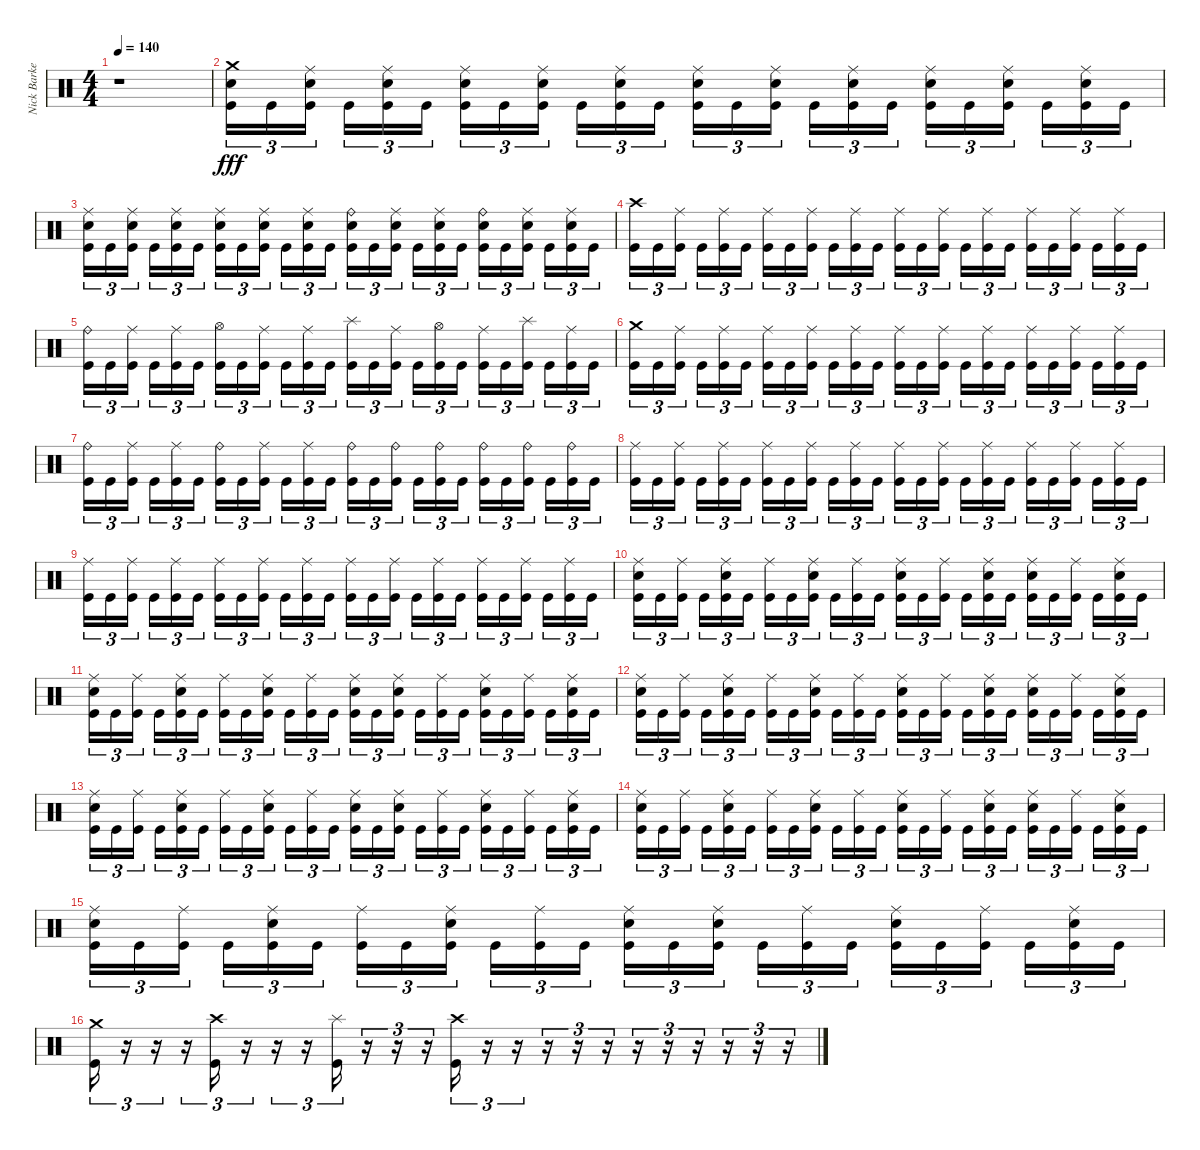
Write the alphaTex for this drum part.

\track ("Nick Barker" "Nick Barke") {instrument percussion}
\staff {score}
\articulation defaults
\ts (4 4)
\tempo 140
\clef neutral
\ks c
r.1{dy fff} |
("Crash medium (hit)" "Electric Snare (hit)" "Kick (hit)").16{tu (3 2)} "Kick (hit)".16{tu (3 2)} ("Ride (middle)" "Electric Snare (hit)" "Kick (hit)").16{tu (3 2)} "Kick (hit)".16{tu (3 2)} ("Ride (middle)" "Electric Snare (hit)" "Kick (hit)").16{tu (3 2)} "Kick (hit)".16{tu (3 2)} ("Ride (middle)" "Electric Snare (hit)" "Kick (hit)").16{tu (3 2)} "Kick (hit)".16{tu (3 2)} ("Ride (middle)" "Electric Snare (hit)" "Kick (hit)").16{tu (3 2)} "Kick (hit)".16{tu (3 2)} ("Ride (middle)" "Electric Snare (hit)" "Kick (hit)").16{tu (3 2)} "Kick (hit)".16{tu (3 2)} ("Ride (middle)" "Electric Snare (hit)" "Kick (hit)").16{tu (3 2)} "Kick (hit)".16{tu (3 2)} ("Ride (middle)" "Electric Snare (hit)" "Kick (hit)").16{tu (3 2)} "Kick (hit)".16{tu (3 2)} ("Ride (middle)" "Electric Snare (hit)" "Kick (hit)").16{tu (3 2)} "Kick (hit)".16{tu (3 2)} ("Ride (middle)" "Electric Snare (hit)" "Kick (hit)").16{tu (3 2)} "Kick (hit)".16{tu (3 2)} ("Ride (middle)" "Electric Snare (hit)" "Kick (hit)").16{tu (3 2)} "Kick (hit)".16{tu (3 2)} ("Ride (middle)" "Electric Snare (hit)" "Kick (hit)").16{tu (3 2)} "Kick (hit)".16{tu (3 2)} |
("Ride (middle)" "Electric Snare (hit)" "Kick (hit)").16{tu (3 2)} "Kick (hit)".16{tu (3 2)} ("Ride (middle)" "Electric Snare (hit)" "Kick (hit)").16{tu (3 2)} "Kick (hit)".16{tu (3 2)} ("Ride (middle)" "Electric Snare (hit)" "Kick (hit)").16{tu (3 2)} "Kick (hit)".16{tu (3 2)} ("Ride (middle)" "Electric Snare (hit)" "Kick (hit)").16{tu (3 2)} "Kick (hit)".16{tu (3 2)} ("Ride (middle)" "Electric Snare (hit)" "Kick (hit)").16{tu (3 2)} "Kick (hit)".16{tu (3 2)} ("Ride (middle)" "Electric Snare (hit)" "Kick (hit)").16{tu (3 2)} "Kick (hit)".16{tu (3 2)} ("Ride (bell)" "Electric Snare (hit)" "Kick (hit)").16{tu (3 2)} "Kick (hit)".16{tu (3 2)} ("Ride (middle)" "Electric Snare (hit)" "Kick (hit)").16{tu (3 2)} "Kick (hit)".16{tu (3 2)} ("Ride (middle)" "Electric Snare (hit)" "Kick (hit)").16{tu (3 2)} "Kick (hit)".16{tu (3 2)} ("Ride (bell)" "Electric Snare (hit)" "Kick (hit)").16{tu (3 2)} "Kick (hit)".16{tu (3 2)} ("Ride (middle)" "Electric Snare (hit)" "Kick (hit)").16{tu (3 2)} "Kick (hit)".16{tu (3 2)} ("Ride (middle)" "Electric Snare (hit)" "Kick (hit)").16{tu (3 2)} "Kick (hit)".16{tu (3 2)} |
("Crash high (hit)" "Kick (hit)").16{tu (3 2)} "Kick (hit)".16{tu (3 2)} ("Ride (middle)" "Kick (hit)").16{tu (3 2)} "Kick (hit)".16{tu (3 2)} ("Ride (middle)" "Kick (hit)").16{tu (3 2)} "Kick (hit)".16{tu (3 2)} ("Ride (middle)" "Kick (hit)").16{tu (3 2)} "Kick (hit)".16{tu (3 2)} ("Ride (middle)" "Kick (hit)").16{tu (3 2)} "Kick (hit)".16{tu (3 2)} ("Ride (middle)" "Kick (hit)").16{tu (3 2)} "Kick (hit)".16{tu (3 2)} ("Ride (middle)" "Kick (hit)").16{tu (3 2)} "Kick (hit)".16{tu (3 2)} ("Ride (middle)" "Kick (hit)").16{tu (3 2)} "Kick (hit)".16{tu (3 2)} ("Ride (middle)" "Kick (hit)").16{tu (3 2)} "Kick (hit)".16{tu (3 2)} ("Ride (middle)" "Kick (hit)").16{tu (3 2)} "Kick (hit)".16{tu (3 2)} ("Ride (middle)" "Kick (hit)").16{tu (3 2)} "Kick (hit)".16{tu (3 2)} ("Ride (middle)" "Kick (hit)").16{tu (3 2)} "Kick (hit)".16{tu (3 2)} |
("Ride (bell)" "Kick (hit)").16{tu (3 2)} "Kick (hit)".16{tu (3 2)} ("Ride (middle)" "Kick (hit)").16{tu (3 2)} "Kick (hit)".16{tu (3 2)} ("Ride (middle)" "Kick (hit)").16{tu (3 2)} "Kick (hit)".16{tu (3 2)} ("Hi-Hat (open)" "Kick (hit)").16{tu (3 2)} "Kick (hit)".16{tu (3 2)} ("Ride (middle)" "Kick (hit)").16{tu (3 2)} "Kick (hit)".16{tu (3 2)} ("Ride (middle)" "Kick (hit)").16{tu (3 2)} "Kick (hit)".16{tu (3 2)} ("Splash (hit)" "Kick (hit)").16{tu (3 2)} "Kick (hit)".16{tu (3 2)} ("Ride (middle)" "Kick (hit)").16{tu (3 2)} "Kick (hit)".16{tu (3 2)} ("Hi-Hat (open)" "Kick (hit)").16{tu (3 2)} "Kick (hit)".16{tu (3 2)} ("Ride (middle)" "Kick (hit)").16{tu (3 2)} "Kick (hit)".16{tu (3 2)} ("Splash (hit)" "Kick (hit)").16{tu (3 2)} "Kick (hit)".16{tu (3 2)} ("Ride (middle)" "Kick (hit)").16{tu (3 2)} "Kick (hit)".16{tu (3 2)} |
("Crash medium (hit)" "Kick (hit)").16{tu (3 2)} "Kick (hit)".16{tu (3 2)} ("Ride (middle)" "Kick (hit)").16{tu (3 2)} "Kick (hit)".16{tu (3 2)} ("Ride (middle)" "Kick (hit)").16{tu (3 2)} "Kick (hit)".16{tu (3 2)} ("Ride (middle)" "Kick (hit)").16{tu (3 2)} "Kick (hit)".16{tu (3 2)} ("Ride (middle)" "Kick (hit)").16{tu (3 2)} "Kick (hit)".16{tu (3 2)} ("Ride (middle)" "Kick (hit)").16{tu (3 2)} "Kick (hit)".16{tu (3 2)} ("Ride (middle)" "Kick (hit)").16{tu (3 2)} "Kick (hit)".16{tu (3 2)} ("Ride (middle)" "Kick (hit)").16{tu (3 2)} "Kick (hit)".16{tu (3 2)} ("Ride (middle)" "Kick (hit)").16{tu (3 2)} "Kick (hit)".16{tu (3 2)} ("Ride (middle)" "Kick (hit)").16{tu (3 2)} "Kick (hit)".16{tu (3 2)} ("Ride (middle)" "Kick (hit)").16{tu (3 2)} "Kick (hit)".16{tu (3 2)} ("Ride (middle)" "Kick (hit)").16{tu (3 2)} "Kick (hit)".16{tu (3 2)} |
("Ride (bell)" "Kick (hit)").16{tu (3 2)} "Kick (hit)".16{tu (3 2)} ("Ride (middle)" "Kick (hit)").16{tu (3 2)} "Kick (hit)".16{tu (3 2)} ("Ride (middle)" "Kick (hit)").16{tu (3 2)} "Kick (hit)".16{tu (3 2)} ("Ride (bell)" "Kick (hit)").16{tu (3 2)} "Kick (hit)".16{tu (3 2)} ("Ride (middle)" "Kick (hit)").16{tu (3 2)} "Kick (hit)".16{tu (3 2)} ("Ride (middle)" "Kick (hit)").16{tu (3 2)} "Kick (hit)".16{tu (3 2)} ("Ride (bell)" "Kick (hit)").16{tu (3 2)} "Kick (hit)".16{tu (3 2)} ("Ride (bell)" "Kick (hit)").16{tu (3 2)} "Kick (hit)".16{tu (3 2)} ("Ride (bell)" "Kick (hit)").16{tu (3 2)} "Kick (hit)".16{tu (3 2)} ("Ride (bell)" "Kick (hit)").16{tu (3 2)} "Kick (hit)".16{tu (3 2)} ("Ride (bell)" "Kick (hit)").16{tu (3 2)} "Kick (hit)".16{tu (3 2)} ("Ride (bell)" "Kick (hit)").16{tu (3 2)} "Kick (hit)".16{tu (3 2)} |
("Ride (middle)" "Kick (hit)").16{tu (3 2)} "Kick (hit)".16{tu (3 2)} ("Ride (middle)" "Kick (hit)").16{tu (3 2)} "Kick (hit)".16{tu (3 2)} ("Ride (middle)" "Kick (hit)").16{tu (3 2)} "Kick (hit)".16{tu (3 2)} ("Ride (middle)" "Kick (hit)").16{tu (3 2)} "Kick (hit)".16{tu (3 2)} ("Ride (middle)" "Kick (hit)").16{tu (3 2)} "Kick (hit)".16{tu (3 2)} ("Ride (middle)" "Kick (hit)").16{tu (3 2)} "Kick (hit)".16{tu (3 2)} ("Ride (middle)" "Kick (hit)").16{tu (3 2)} "Kick (hit)".16{tu (3 2)} ("Ride (middle)" "Kick (hit)").16{tu (3 2)} "Kick (hit)".16{tu (3 2)} ("Ride (middle)" "Kick (hit)").16{tu (3 2)} "Kick (hit)".16{tu (3 2)} ("Ride (middle)" "Kick (hit)").16{tu (3 2)} "Kick (hit)".16{tu (3 2)} ("Ride (middle)" "Kick (hit)").16{tu (3 2)} "Kick (hit)".16{tu (3 2)} ("Ride (middle)" "Kick (hit)").16{tu (3 2)} "Kick (hit)".16{tu (3 2)} |
("Ride (middle)" "Kick (hit)").16{tu (3 2)} "Kick (hit)".16{tu (3 2)} ("Ride (middle)" "Kick (hit)").16{tu (3 2)} "Kick (hit)".16{tu (3 2)} ("Ride (middle)" "Kick (hit)").16{tu (3 2)} "Kick (hit)".16{tu (3 2)} ("Ride (middle)" "Kick (hit)").16{tu (3 2)} "Kick (hit)".16{tu (3 2)} ("Ride (middle)" "Kick (hit)").16{tu (3 2)} "Kick (hit)".16{tu (3 2)} ("Ride (middle)" "Kick (hit)").16{tu (3 2)} "Kick (hit)".16{tu (3 2)} ("Ride (middle)" "Kick (hit)").16{tu (3 2)} "Kick (hit)".16{tu (3 2)} ("Ride (middle)" "Kick (hit)").16{tu (3 2)} "Kick (hit)".16{tu (3 2)} ("Ride (middle)" "Kick (hit)").16{tu (3 2)} "Kick (hit)".16{tu (3 2)} ("Ride (middle)" "Kick (hit)").16{tu (3 2)} "Kick (hit)".16{tu (3 2)} ("Ride (middle)" "Kick (hit)").16{tu (3 2)} "Kick (hit)".16{tu (3 2)} ("Ride (middle)" "Kick (hit)").16{tu (3 2)} "Kick (hit)".16{tu (3 2)} |
("Ride (middle)" "Electric Snare (hit)" "Kick (hit)").16{tu (3 2)} "Kick (hit)".16{tu (3 2)} ("Ride (middle)" "Kick (hit)").16{tu (3 2)} "Kick (hit)".16{tu (3 2)} ("Ride (middle)" "Electric Snare (hit)" "Kick (hit)").16{tu (3 2)} "Kick (hit)".16{tu (3 2)} ("Ride (middle)" "Kick (hit)").16{tu (3 2)} "Kick (hit)".16{tu (3 2)} ("Ride (middle)" "Electric Snare (hit)" "Kick (hit)").16{tu (3 2)} "Kick (hit)".16{tu (3 2)} ("Ride (middle)" "Kick (hit)").16{tu (3 2)} "Kick (hit)".16{tu (3 2)} ("Ride (middle)" "Electric Snare (hit)" "Kick (hit)").16{tu (3 2)} "Kick (hit)".16{tu (3 2)} ("Ride (middle)" "Kick (hit)").16{tu (3 2)} "Kick (hit)".16{tu (3 2)} ("Ride (middle)" "Electric Snare (hit)" "Kick (hit)").16{tu (3 2)} "Kick (hit)".16{tu (3 2)} ("Ride (middle)" "Electric Snare (hit)" "Kick (hit)").16{tu (3 2)} "Kick (hit)".16{tu (3 2)} ("Ride (middle)" "Kick (hit)").16{tu (3 2)} "Kick (hit)".16{tu (3 2)} ("Ride (middle)" "Electric Snare (hit)" "Kick (hit)").16{tu (3 2)} "Kick (hit)".16{tu (3 2)} |
("Ride (middle)" "Electric Snare (hit)" "Kick (hit)").16{tu (3 2)} "Kick (hit)".16{tu (3 2)} ("Ride (middle)" "Kick (hit)").16{tu (3 2)} "Kick (hit)".16{tu (3 2)} ("Ride (middle)" "Electric Snare (hit)" "Kick (hit)").16{tu (3 2)} "Kick (hit)".16{tu (3 2)} ("Ride (middle)" "Kick (hit)").16{tu (3 2)} "Kick (hit)".16{tu (3 2)} ("Ride (middle)" "Electric Snare (hit)" "Kick (hit)").16{tu (3 2)} "Kick (hit)".16{tu (3 2)} ("Ride (middle)" "Kick (hit)").16{tu (3 2)} "Kick (hit)".16{tu (3 2)} ("Ride (middle)" "Electric Snare (hit)" "Kick (hit)").16{tu (3 2)} "Kick (hit)".16{tu (3 2)} ("Ride (middle)" "Electric Snare (hit)" "Kick (hit)").16{tu (3 2)} "Kick (hit)".16{tu (3 2)} ("Ride (middle)" "Kick (hit)").16{tu (3 2)} "Kick (hit)".16{tu (3 2)} ("Ride (middle)" "Electric Snare (hit)" "Kick (hit)").16{tu (3 2)} "Kick (hit)".16{tu (3 2)} ("Ride (middle)" "Kick (hit)").16{tu (3 2)} "Kick (hit)".16{tu (3 2)} ("Ride (middle)" "Electric Snare (hit)" "Kick (hit)").16{tu (3 2)} "Kick (hit)".16{tu (3 2)} |
("Ride (middle)" "Electric Snare (hit)" "Kick (hit)").16{tu (3 2)} "Kick (hit)".16{tu (3 2)} ("Ride (middle)" "Kick (hit)").16{tu (3 2)} "Kick (hit)".16{tu (3 2)} ("Ride (middle)" "Electric Snare (hit)" "Kick (hit)").16{tu (3 2)} "Kick (hit)".16{tu (3 2)} ("Ride (middle)" "Kick (hit)").16{tu (3 2)} "Kick (hit)".16{tu (3 2)} ("Ride (middle)" "Electric Snare (hit)" "Kick (hit)").16{tu (3 2)} "Kick (hit)".16{tu (3 2)} ("Ride (middle)" "Kick (hit)").16{tu (3 2)} "Kick (hit)".16{tu (3 2)} ("Ride (middle)" "Electric Snare (hit)" "Kick (hit)").16{tu (3 2)} "Kick (hit)".16{tu (3 2)} ("Ride (middle)" "Kick (hit)").16{tu (3 2)} "Kick (hit)".16{tu (3 2)} ("Ride (middle)" "Electric Snare (hit)" "Kick (hit)").16{tu (3 2)} "Kick (hit)".16{tu (3 2)} ("Ride (middle)" "Electric Snare (hit)" "Kick (hit)").16{tu (3 2)} "Kick (hit)".16{tu (3 2)} ("Ride (middle)" "Kick (hit)").16{tu (3 2)} "Kick (hit)".16{tu (3 2)} ("Ride (middle)" "Electric Snare (hit)" "Kick (hit)").16{tu (3 2)} "Kick (hit)".16{tu (3 2)} |
("Ride (middle)" "Electric Snare (hit)" "Kick (hit)").16{tu (3 2)} "Kick (hit)".16{tu (3 2)} ("Ride (middle)" "Kick (hit)").16{tu (3 2)} "Kick (hit)".16{tu (3 2)} ("Ride (middle)" "Electric Snare (hit)" "Kick (hit)").16{tu (3 2)} "Kick (hit)".16{tu (3 2)} ("Ride (middle)" "Kick (hit)").16{tu (3 2)} "Kick (hit)".16{tu (3 2)} ("Ride (middle)" "Electric Snare (hit)" "Kick (hit)").16{tu (3 2)} "Kick (hit)".16{tu (3 2)} ("Ride (middle)" "Kick (hit)").16{tu (3 2)} "Kick (hit)".16{tu (3 2)} ("Ride (middle)" "Electric Snare (hit)" "Kick (hit)").16{tu (3 2)} "Kick (hit)".16{tu (3 2)} ("Ride (middle)" "Electric Snare (hit)" "Kick (hit)").16{tu (3 2)} "Kick (hit)".16{tu (3 2)} ("Ride (middle)" "Kick (hit)").16{tu (3 2)} "Kick (hit)".16{tu (3 2)} ("Ride (middle)" "Electric Snare (hit)" "Kick (hit)").16{tu (3 2)} "Kick (hit)".16{tu (3 2)} ("Ride (middle)" "Kick (hit)").16{tu (3 2)} "Kick (hit)".16{tu (3 2)} ("Ride (middle)" "Electric Snare (hit)" "Kick (hit)").16{tu (3 2)} "Kick (hit)".16{tu (3 2)} |
("Ride (middle)" "Electric Snare (hit)" "Kick (hit)").16{tu (3 2)} "Kick (hit)".16{tu (3 2)} ("Ride (middle)" "Kick (hit)").16{tu (3 2)} "Kick (hit)".16{tu (3 2)} ("Ride (middle)" "Electric Snare (hit)" "Kick (hit)").16{tu (3 2)} "Kick (hit)".16{tu (3 2)} ("Ride (middle)" "Kick (hit)").16{tu (3 2)} "Kick (hit)".16{tu (3 2)} ("Ride (middle)" "Electric Snare (hit)" "Kick (hit)").16{tu (3 2)} "Kick (hit)".16{tu (3 2)} ("Ride (middle)" "Kick (hit)").16{tu (3 2)} "Kick (hit)".16{tu (3 2)} ("Ride (middle)" "Electric Snare (hit)" "Kick (hit)").16{tu (3 2)} "Kick (hit)".16{tu (3 2)} ("Ride (middle)" "Kick (hit)").16{tu (3 2)} "Kick (hit)".16{tu (3 2)} ("Ride (middle)" "Electric Snare (hit)" "Kick (hit)").16{tu (3 2)} "Kick (hit)".16{tu (3 2)} ("Ride (middle)" "Electric Snare (hit)" "Kick (hit)").16{tu (3 2)} "Kick (hit)".16{tu (3 2)} ("Ride (middle)" "Kick (hit)").16{tu (3 2)} "Kick (hit)".16{tu (3 2)} ("Ride (middle)" "Electric Snare (hit)" "Kick (hit)").16{tu (3 2)} "Kick (hit)".16{tu (3 2)} |
("Ride (middle)" "Electric Snare (hit)" "Kick (hit)").16{tu (3 2)} "Kick (hit)".16{tu (3 2)} ("Ride (middle)" "Kick (hit)").16{tu (3 2)} "Kick (hit)".16{tu (3 2)} ("Ride (middle)" "Electric Snare (hit)" "Kick (hit)").16{tu (3 2)} "Kick (hit)".16{tu (3 2)} ("Ride (middle)" "Kick (hit)").16{tu (3 2)} "Kick (hit)".16{tu (3 2)} ("Ride (middle)" "Electric Snare (hit)" "Kick (hit)").16{tu (3 2)} "Kick (hit)".16{tu (3 2)} ("Ride (middle)" "Kick (hit)").16{tu (3 2)} "Kick (hit)".16{tu (3 2)} ("Ride (middle)" "Electric Snare (hit)" "Kick (hit)").16{tu (3 2)} "Kick (hit)".16{tu (3 2)} ("Ride (middle)" "Electric Snare (hit)" "Kick (hit)").16{tu (3 2)} "Kick (hit)".16{tu (3 2)} ("Ride (middle)" "Kick (hit)").16{tu (3 2)} "Kick (hit)".16{tu (3 2)} ("Ride (middle)" "Electric Snare (hit)" "Kick (hit)").16{tu (3 2)} "Kick (hit)".16{tu (3 2)} ("Ride (middle)" "Kick (hit)").16{tu (3 2)} "Kick (hit)".16{tu (3 2)} ("Ride (middle)" "Electric Snare (hit)" "Kick (hit)").16{tu (3 2)} "Kick (hit)".16{tu (3 2)} |
("Crash medium (hit)" "Kick (hit)").16{tu (3 2)} r.16{tu (3 2)} r.16{tu (3 2)} r.16{tu (3 2)} ("Crash high (hit)" "Kick (hit)").16{tu (3 2)} r.16{tu (3 2)} r.16{tu (3 2)} r.16{tu (3 2)} ("Splash (hit)" "Kick (hit)").16{tu (3 2)} r.16{tu (3 2)} r.16{tu (3 2)} r.16{tu (3 2)} ("Crash high (hit)" "Kick (hit)").16{tu (3 2)} r.16{tu (3 2)} r.16{tu (3 2)} r.16{tu (3 2)} r.16{tu (3 2)} r.16{tu (3 2)} r.16{tu (3 2)} r.16{tu (3 2)} r.16{tu (3 2)} r.16{tu (3 2)} r.16{tu (3 2)} r.16{tu (3 2)}
